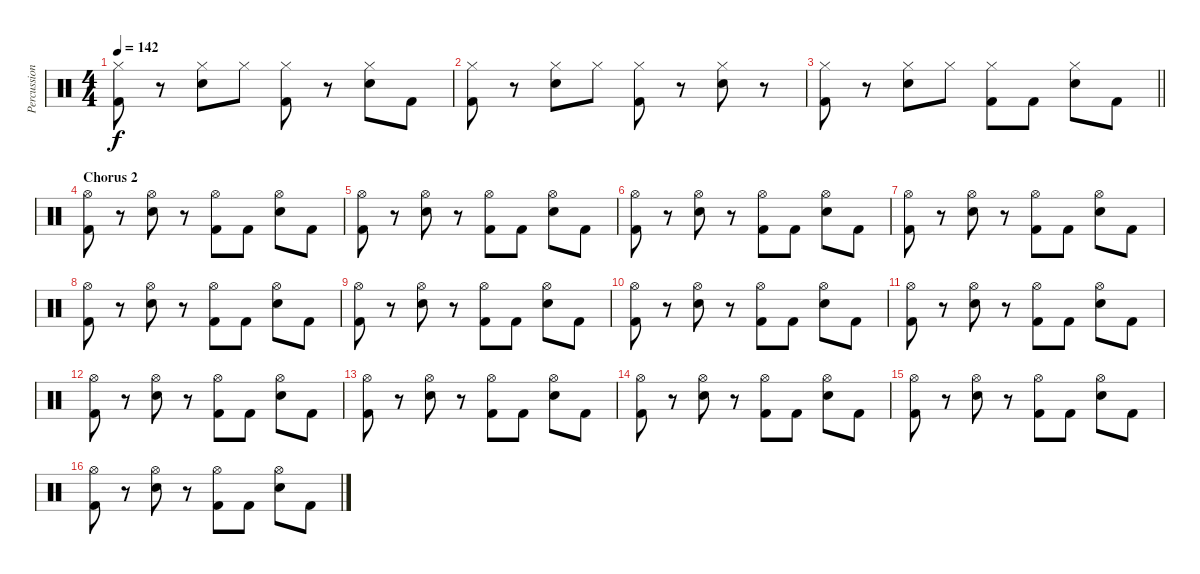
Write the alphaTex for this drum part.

\track ("Percussion" "Percussion") {instrument percussion}
\staff {score}
\articulation defaults
\ts (4 4)
\tempo 142
\clef neutral
\ks c
("Hi-Hat (closed)" "Kick (hit) 2").8{dy f} r.8 ("Hi-Hat (closed)" "Electric Snare (hit)").8 "Hi-Hat (closed)".8 ("Hi-Hat (closed)" "Kick (hit) 2").8 r.8 ("Hi-Hat (closed)" "Electric Snare (hit)").8 "Kick (hit) 2".8 |
("Hi-Hat (closed)" "Kick (hit) 2").8 r.8 ("Hi-Hat (closed)" "Electric Snare (hit)").8 "Hi-Hat (closed)".8 ("Hi-Hat (closed)" "Kick (hit) 2").8 r.8 ("Hi-Hat (closed)" "Electric Snare (hit)").8 r.8 |
\barLineRight lightlight
("Hi-Hat (closed)" "Kick (hit) 2").8 r.8 ("Hi-Hat (closed)" "Electric Snare (hit)").8 "Hi-Hat (closed)".8 ("Hi-Hat (closed)" "Kick (hit) 2").8 "Kick (hit) 2".8 ("Hi-Hat (closed)" "Electric Snare (hit)").8 "Kick (hit) 2".8 |
\section ("" "Chorus 2")
("Hi-Hat (open)" "Kick (hit) 2").8 r.8 ("Hi-Hat (open)" "Electric Snare (hit)").8 r.8 ("Hi-Hat (open)" "Kick (hit) 2").8 "Kick (hit) 2".8 ("Hi-Hat (open)" "Electric Snare (hit)").8 "Kick (hit) 2".8 |
("Hi-Hat (open)" "Kick (hit) 2").8 r.8 ("Hi-Hat (open)" "Electric Snare (hit)").8 r.8 ("Hi-Hat (open)" "Kick (hit) 2").8 "Kick (hit) 2".8 ("Hi-Hat (open)" "Electric Snare (hit)").8 "Kick (hit) 2".8 |
("Hi-Hat (open)" "Kick (hit) 2").8 r.8 ("Hi-Hat (open)" "Electric Snare (hit)").8 r.8 ("Hi-Hat (open)" "Kick (hit) 2").8 "Kick (hit) 2".8 ("Hi-Hat (open)" "Electric Snare (hit)").8 "Kick (hit) 2".8 |
("Hi-Hat (open)" "Kick (hit) 2").8 r.8 ("Hi-Hat (open)" "Electric Snare (hit)").8 r.8 ("Hi-Hat (open)" "Kick (hit) 2").8 "Kick (hit) 2".8 ("Hi-Hat (open)" "Electric Snare (hit)").8 "Kick (hit) 2".8 |
("Hi-Hat (open)" "Kick (hit) 2").8 r.8 ("Hi-Hat (open)" "Electric Snare (hit)").8 r.8 ("Hi-Hat (open)" "Kick (hit) 2").8 "Kick (hit) 2".8 ("Hi-Hat (open)" "Electric Snare (hit)").8 "Kick (hit) 2".8 |
("Hi-Hat (open)" "Kick (hit) 2").8 r.8 ("Hi-Hat (open)" "Electric Snare (hit)").8 r.8 ("Hi-Hat (open)" "Kick (hit) 2").8 "Kick (hit) 2".8 ("Hi-Hat (open)" "Electric Snare (hit)").8 "Kick (hit) 2".8 |
("Hi-Hat (open)" "Kick (hit) 2").8 r.8 ("Hi-Hat (open)" "Electric Snare (hit)").8 r.8 ("Hi-Hat (open)" "Kick (hit) 2").8 "Kick (hit) 2".8 ("Hi-Hat (open)" "Electric Snare (hit)").8 "Kick (hit) 2".8 |
("Hi-Hat (open)" "Kick (hit) 2").8 r.8 ("Hi-Hat (open)" "Electric Snare (hit)").8 r.8 ("Hi-Hat (open)" "Kick (hit) 2").8 "Kick (hit) 2".8 ("Hi-Hat (open)" "Electric Snare (hit)").8 "Kick (hit) 2".8 |
("Hi-Hat (open)" "Kick (hit) 2").8 r.8 ("Hi-Hat (open)" "Electric Snare (hit)").8 r.8 ("Hi-Hat (open)" "Kick (hit) 2").8 "Kick (hit) 2".8 ("Hi-Hat (open)" "Electric Snare (hit)").8 "Kick (hit) 2".8 |
("Hi-Hat (open)" "Kick (hit) 2").8 r.8 ("Hi-Hat (open)" "Electric Snare (hit)").8 r.8 ("Hi-Hat (open)" "Kick (hit) 2").8 "Kick (hit) 2".8 ("Hi-Hat (open)" "Electric Snare (hit)").8 "Kick (hit) 2".8 |
("Hi-Hat (open)" "Kick (hit) 2").8 r.8 ("Hi-Hat (open)" "Electric Snare (hit)").8 r.8 ("Hi-Hat (open)" "Kick (hit) 2").8 "Kick (hit) 2".8 ("Hi-Hat (open)" "Electric Snare (hit)").8 "Kick (hit) 2".8 |
("Hi-Hat (open)" "Kick (hit) 2").8 r.8 ("Hi-Hat (open)" "Electric Snare (hit)").8 r.8 ("Hi-Hat (open)" "Kick (hit) 2").8 "Kick (hit) 2".8 ("Hi-Hat (open)" "Electric Snare (hit)").8 "Kick (hit) 2".8 |
("Hi-Hat (open)" "Kick (hit) 2").8 r.8 ("Hi-Hat (open)" "Electric Snare (hit)").8 r.8 ("Hi-Hat (open)" "Kick (hit) 2").8 "Kick (hit) 2".8 ("Hi-Hat (open)" "Electric Snare (hit)").8 "Kick (hit) 2".8
